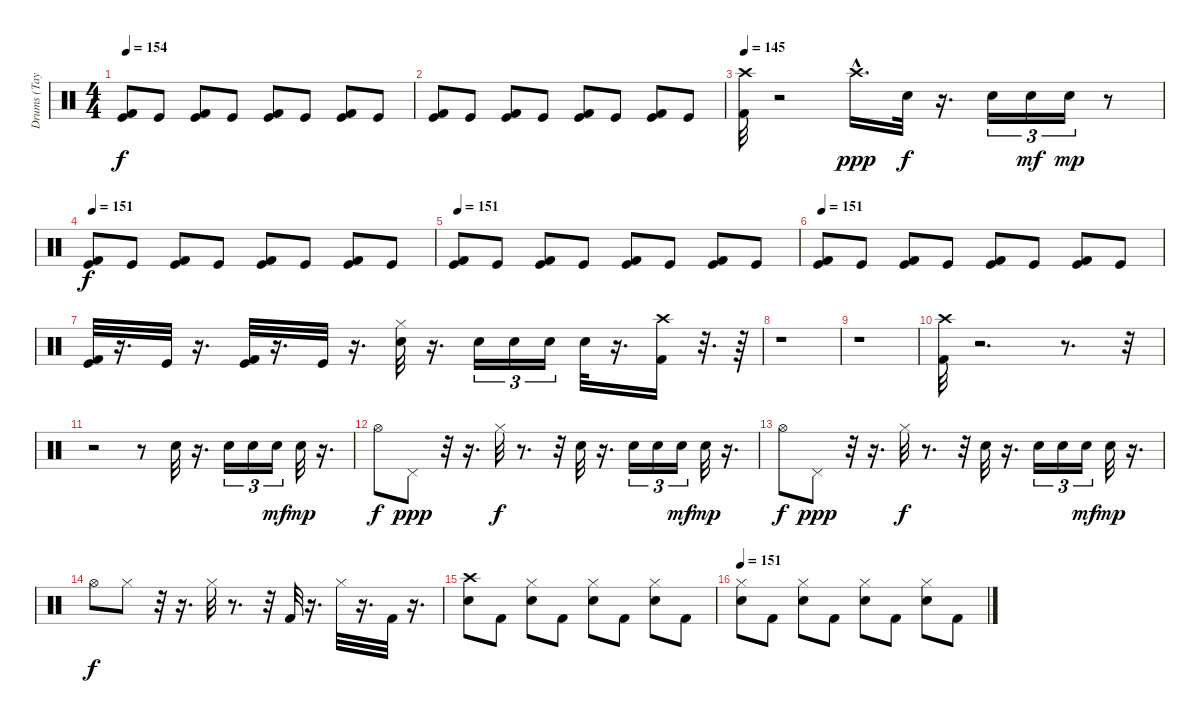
\track ("Drums (Taylor)" "Drums (Tay") {instrument percussion}
\staff {score}
\articulation defaults
\ts (4 4)
\tempo 154
\clef neutral
\ks c
("Kick (hit) 2" "Kick (hit)").8{dy f} "Kick (hit)".8 ("Kick (hit) 2" "Kick (hit)").8 "Kick (hit)".8 ("Kick (hit) 2" "Kick (hit)").8 "Kick (hit)".8 ("Kick (hit) 2" "Kick (hit)").8 "Kick (hit)".8 |
("Kick (hit) 2" "Kick (hit)").8 "Kick (hit)".8 ("Kick (hit) 2" "Kick (hit)").8 "Kick (hit)".8 ("Kick (hit) 2" "Kick (hit)").8 "Kick (hit)".8 ("Kick (hit) 2" "Kick (hit)").8 "Kick (hit)".8 |
\tempo 145
("Crash high (hit)" "Kick (hit) 2").32{volume 0} r.2 "Crash high (hit)"{hac}.16{d dy ppp} "Electric Snare (hit)".32{dy f volume 16} r.16{d} "Electric Snare (hit)".16{tu (3 2)} "Electric Snare (hit)".16{tu (3 2) dy mf} "Electric Snare (hit)".16{tu (3 2) dy mp} r.8 |
\tempo 151
("Kick (hit) 2" "Kick (hit)").8{dy f} "Kick (hit)".8 ("Kick (hit) 2" "Kick (hit)").8 "Kick (hit)".8 ("Kick (hit) 2" "Kick (hit)").8 "Kick (hit)".8 ("Kick (hit) 2" "Kick (hit)").8 "Kick (hit)".8 |
\tempo 151
("Kick (hit) 2" "Kick (hit)").8 "Kick (hit)".8 ("Kick (hit) 2" "Kick (hit)").8 "Kick (hit)".8 ("Kick (hit) 2" "Kick (hit)").8 "Kick (hit)".8 ("Kick (hit) 2" "Kick (hit)").8 "Kick (hit)".8 |
\tempo 151
("Kick (hit) 2" "Kick (hit)").8 "Kick (hit)".8 ("Kick (hit) 2" "Kick (hit)").8 "Kick (hit)".8 ("Kick (hit) 2" "Kick (hit)").8 "Kick (hit)".8 ("Kick (hit) 2" "Kick (hit)").8 "Kick (hit)".8 |
("Kick (hit) 2" "Kick (hit)").32 r.16{d} "Kick (hit)".32 r.16{d} ("Kick (hit) 2" "Kick (hit)").32 r.16{d} "Kick (hit)".32 r.16{d} ("Hi-Hat (closed)" "Electric Snare (hit)").32 r.16{d} "Electric Snare (hit)".16{tu (3 2)} "Electric Snare (hit)".16{tu (3 2)} "Electric Snare (hit)".16{tu (3 2)} "Electric Snare (hit)".32 r.16{d} ("Crash high (hit)" "Kick (hit) 2").16 r.32{d} r.64{volume 0} |
r.1 |
r.1{volume 16} |
("Kick (hit) 2" "Crash high (hit)").32{volume 0} r.2{d} r.8{d} r.32 |
r.2{volume 16} r.8 "Electric Snare (hit)".32 r.16{d} "Electric Snare (hit)".16{tu (3 2)} "Electric Snare (hit)".16{tu (3 2)} "Electric Snare (hit)".16{tu (3 2) dy mf} "Electric Snare (hit)".32{dy mp} r.16{d} |
"Hi-Hat (open)".8{dy f} "Pedal Hi-Hat (hit)".8{dy ppp} r.32 r.16{d} "Hi-Hat (closed)".32{dy f} r.8{d} r.32 "Electric Snare (hit)".32 r.16{d} "Electric Snare (hit)".16{tu (3 2)} "Electric Snare (hit)".16{tu (3 2)} "Electric Snare (hit)".16{tu (3 2) dy mf} "Electric Snare (hit)".32{dy mp} r.16{d} |
"Hi-Hat (open)".8{dy f} "Pedal Hi-Hat (hit)".8{dy ppp} r.32 r.16{d} "Hi-Hat (closed)".32{dy f} r.8{d} r.32 "Electric Snare (hit)".32 r.16{d} "Electric Snare (hit)".16{tu (3 2)} "Electric Snare (hit)".16{tu (3 2)} "Electric Snare (hit)".16{tu (3 2) dy mf} "Electric Snare (hit)".32{dy mp} r.16{d} |
"Hi-Hat (open)".8{dy f} "Hi-Hat (closed)".8 r.32 r.16{d} "Hi-Hat (closed)".32 r.8{d} r.32 "Kick (hit) 2".32 r.16{d} "Hi-Hat (closed)".32 r.16{d} "Kick (hit) 2".32 r.16{d} |
\section ("" "")
("Crash high (hit)" "Electric Snare (hit)").8 "Kick (hit) 2".8 ("Hi-Hat (closed)" "Electric Snare (hit)").8 "Kick (hit) 2".8 ("Hi-Hat (closed)" "Electric Snare (hit)").8 "Kick (hit) 2".8 ("Hi-Hat (closed)" "Electric Snare (hit)").8 "Kick (hit) 2".8 |
\tempo 151
("Hi-Hat (closed)" "Electric Snare (hit)").8 "Kick (hit) 2".8 ("Hi-Hat (closed)" "Electric Snare (hit)").8 "Kick (hit) 2".8 ("Hi-Hat (closed)" "Electric Snare (hit)").8 "Kick (hit) 2".8 ("Hi-Hat (closed)" "Electric Snare (hit)").8 "Kick (hit) 2".8
